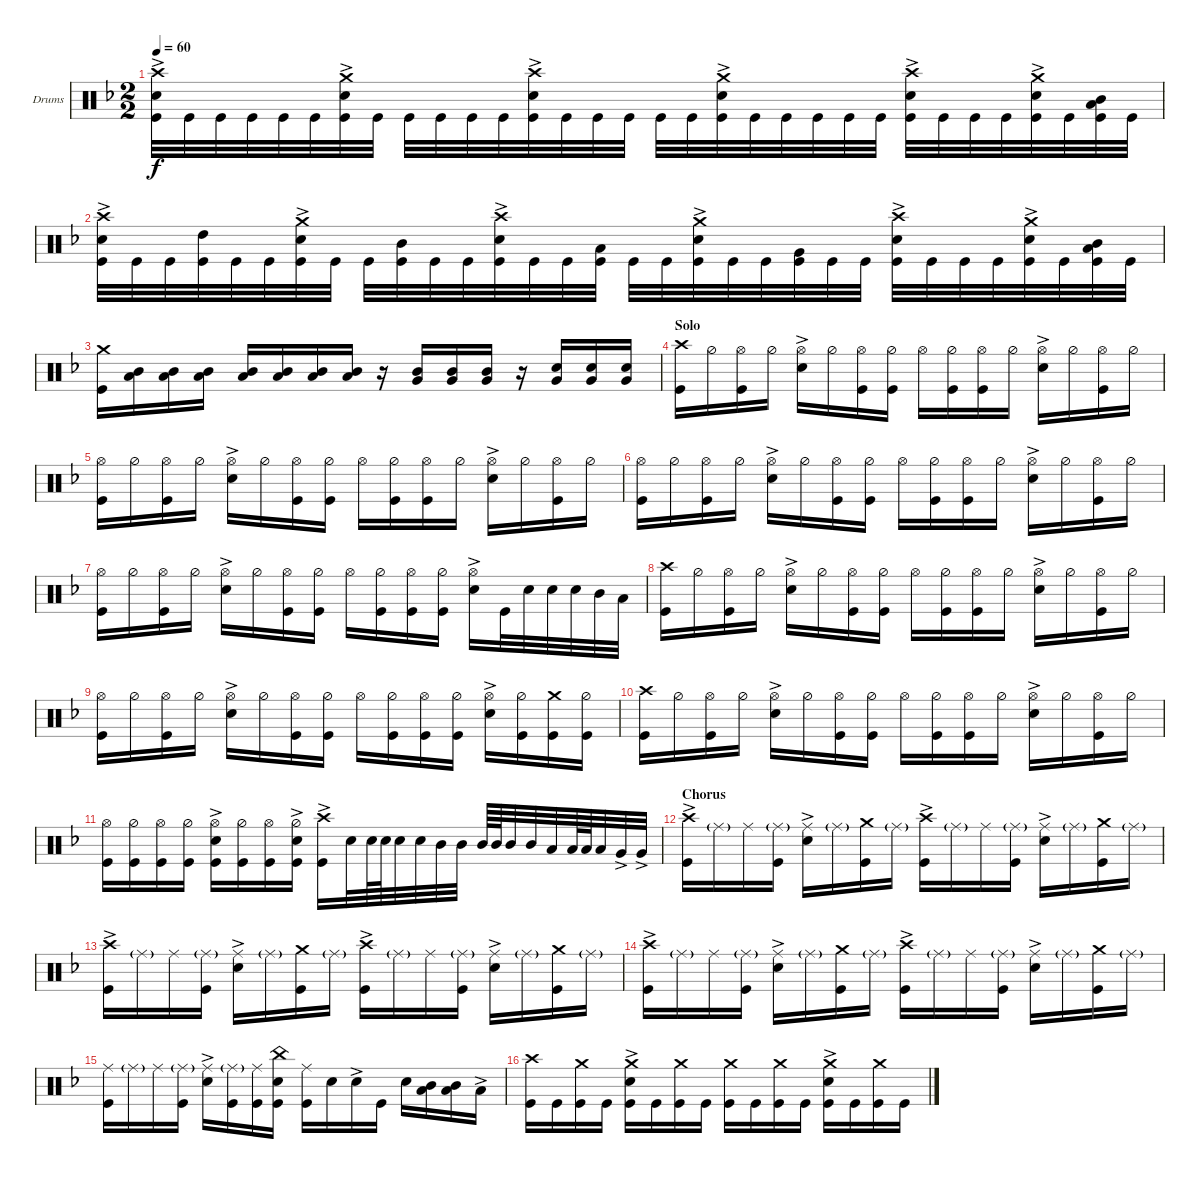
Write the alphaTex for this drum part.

\bracketExtendMode groupsimilarinstruments
\firstSystemTrackNameOrientation horizontal
\otherSystemsTrackNameOrientation horizontal
\track ("Drumkit" "Drums") {instrument percussion}
\staff {score}
\articulation defaults
\ts (2 2)
\tempo 60
\clef neutral
\ks dminor
("Kick (hit)" "Snare (hit) 2"{ac} "Crash high (hit)").32{dy f} "Kick (hit)".32 "Kick (hit)".32 "Kick (hit)".32 "Kick (hit)".32 "Kick (hit)".32 ("Kick (hit)" "Snare (hit) 2"{ac} "Crash medium (hit)").32 "Kick (hit)".32 "Kick (hit)".32 "Kick (hit)".32 "Kick (hit)".32 "Kick (hit)".32 ("Kick (hit)" "Snare (hit) 2"{ac} "Crash high (hit)").32 "Kick (hit)".32 "Kick (hit)".32 "Kick (hit)".32 "Kick (hit)".32 "Kick (hit)".32 ("Kick (hit)" "Snare (hit) 2"{ac} "Crash medium (hit)").32 "Kick (hit)".32 "Kick (hit)".32 "Kick (hit)".32 "Kick (hit)".32 "Kick (hit)".32 ("Kick (hit)" "Snare (hit) 2"{ac} "Crash high (hit)").32 "Kick (hit)".32 "Kick (hit)".32 "Kick (hit)".32 ("Kick (hit)" "Snare (hit) 2"{ac} "Crash medium (hit)").32 "Kick (hit)".32 ("Kick (hit)" "Mid Tom (hit)" "Low Tom (hit)").32 "Kick (hit)".32 |
("Kick (hit)" "Snare (hit) 2"{ac} "Crash high (hit)").32 "Kick (hit)".32 "Kick (hit)".32 ("Kick (hit)" "High Tom (hit)").32 "Kick (hit)".32 "Kick (hit)".32 ("Kick (hit)" "Snare (hit) 2"{ac} "Crash medium (hit)").32 "Kick (hit)".32 "Kick (hit)".32 ("Kick (hit)" "Mid Tom (hit)").32 "Kick (hit)".32 "Kick (hit)".32 ("Kick (hit)" "Snare (hit) 2"{ac} "Crash high (hit)").32 "Kick (hit)".32 "Kick (hit)".32 ("Kick (hit)" "Low Tom (hit)").32 "Kick (hit)".32 "Kick (hit)".32 ("Kick (hit)" "Snare (hit) 2"{ac} "Crash medium (hit)").32 "Kick (hit)".32 "Kick (hit)".32 ("Kick (hit)" "Very Low Tom (hit)").32 "Kick (hit)".32 "Kick (hit)".32 ("Kick (hit)" "Snare (hit) 2"{ac} "Crash high (hit)").32 "Kick (hit)".32 "Kick (hit)".32 "Kick (hit)".32 ("Kick (hit)" "Snare (hit) 2"{ac} "Crash medium (hit)").32 "Kick (hit)".32 ("Kick (hit)" "Mid Tom (hit)" "Low Tom (hit)").32 "Kick (hit)".32 |
("Kick (hit)" "Crash medium (hit)").16 ("Mid Tom (hit)" "Low Tom (hit)").16 ("Mid Tom (hit)" "Low Tom (hit)").16 ("Mid Tom (hit)" "Low Tom (hit)").16 ("Mid Tom (hit)" "Low Tom (hit)").16 ("Mid Tom (hit)" "Low Tom (hit)").16 ("Mid Tom (hit)" "Low Tom (hit)").16 ("Mid Tom (hit)" "Low Tom (hit)").16 r.16 ("Very Low Tom (hit)" "Mid Tom (hit)").16 ("Very Low Tom (hit)" "Mid Tom (hit)").16 ("Very Low Tom (hit)" "Mid Tom (hit)").16 r.16 ("Very Low Tom (hit)" "Snare (hit) 2").16 ("Very Low Tom (hit)" "Snare (hit) 2").16 ("Very Low Tom (hit)" "Snare (hit) 2").16 |
\section ("" "Solo")
("Kick (hit)" "Crash high (hit)").16 "Hi-Hat (half)".16 ("Hi-Hat (open)" "Kick (hit)").16 "Hi-Hat (half)".16 ("Hi-Hat (open)" "Snare (hit) 2"{ac}).16 "Hi-Hat (half)".16 ("Hi-Hat (open)" "Kick (hit)").16 ("Hi-Hat (half)" "Kick (hit)").16 "Hi-Hat (open)".16 ("Hi-Hat (half)" "Kick (hit)").16 ("Hi-Hat (open)" "Kick (hit)").16 "Hi-Hat (half)".16 ("Hi-Hat (open)" "Snare (hit) 2"{ac}).16 "Hi-Hat (half)".16 ("Hi-Hat (open)" "Kick (hit)").16 "Hi-Hat (half)".16 |
("Kick (hit)" "Hi-Hat (open)").16 "Hi-Hat (half)".16 ("Hi-Hat (open)" "Kick (hit)").16 "Hi-Hat (half)".16 ("Hi-Hat (open)" "Snare (hit) 2"{ac}).16 "Hi-Hat (half)".16 ("Hi-Hat (open)" "Kick (hit)").16 ("Hi-Hat (half)" "Kick (hit)").16 "Hi-Hat (open)".16 ("Hi-Hat (half)" "Kick (hit)").16 ("Hi-Hat (open)" "Kick (hit)").16 "Hi-Hat (half)".16 ("Hi-Hat (open)" "Snare (hit) 2"{ac}).16 "Hi-Hat (half)".16 ("Hi-Hat (open)" "Kick (hit)").16 "Hi-Hat (half)".16 |
("Kick (hit)" "Hi-Hat (open)").16 "Hi-Hat (half)".16 ("Hi-Hat (open)" "Kick (hit)").16 "Hi-Hat (half)".16 ("Hi-Hat (open)" "Snare (hit) 2"{ac}).16 "Hi-Hat (half)".16 ("Hi-Hat (open)" "Kick (hit)").16 ("Hi-Hat (half)" "Kick (hit)").16 "Hi-Hat (open)".16 ("Hi-Hat (half)" "Kick (hit)").16 ("Hi-Hat (open)" "Kick (hit)").16 "Hi-Hat (half)".16 ("Hi-Hat (open)" "Snare (hit) 2"{ac}).16 "Hi-Hat (half)".16 ("Hi-Hat (open)" "Kick (hit)").16 "Hi-Hat (half)".16 |
("Kick (hit)" "Hi-Hat (open)").16 "Hi-Hat (half)".16 ("Hi-Hat (open)" "Kick (hit)").16 "Hi-Hat (half)".16 ("Hi-Hat (open)" "Snare (hit) 2"{ac}).16 "Hi-Hat (half)".16 ("Hi-Hat (open)" "Kick (hit)").16 ("Hi-Hat (half)" "Kick (hit)").16 "Hi-Hat (open)".16 ("Hi-Hat (half)" "Kick (hit)").16 ("Hi-Hat (open)" "Kick (hit)").16 ("Hi-Hat (half)" "Kick (hit)").16 ("Hi-Hat (open)" "Snare (hit) 2"{ac}).16 "Kick (hit)".32 "Snare (hit) 2".32 "Snare (hit) 2".32 "Snare (hit) 2".32 "Mid Tom (hit)".32 "Low Tom (hit)".32 |
("Kick (hit)" "Crash high (hit)").16 "Hi-Hat (half)".16 ("Hi-Hat (open)" "Kick (hit)").16 "Hi-Hat (half)".16 ("Hi-Hat (open)" "Snare (hit) 2"{ac}).16 "Hi-Hat (half)".16 ("Hi-Hat (open)" "Kick (hit)").16 ("Hi-Hat (half)" "Kick (hit)").16 "Hi-Hat (open)".16 ("Hi-Hat (half)" "Kick (hit)").16 ("Hi-Hat (open)" "Kick (hit)").16 "Hi-Hat (half)".16 ("Hi-Hat (open)" "Snare (hit) 2"{ac}).16 "Hi-Hat (half)".16 ("Hi-Hat (open)" "Kick (hit)").16 "Hi-Hat (half)".16 |
("Kick (hit)" "Hi-Hat (open)").16 "Hi-Hat (half)".16 ("Hi-Hat (open)" "Kick (hit)").16 "Hi-Hat (half)".16 ("Hi-Hat (open)" "Snare (hit) 2"{ac}).16 "Hi-Hat (half)".16 ("Hi-Hat (open)" "Kick (hit)").16 ("Hi-Hat (half)" "Kick (hit)").16 "Hi-Hat (open)".16 ("Hi-Hat (half)" "Kick (hit)").16 ("Hi-Hat (open)" "Kick (hit)").16 ("Hi-Hat (half)" "Kick (hit)").16 ("Hi-Hat (open)" "Snare (hit) 2"{ac}).16 ("Hi-Hat (half)" "Kick (hit)").16 ("Kick (hit)" "Crash medium (hit)").16 ("Hi-Hat (half)" "Kick (hit)").16 |
("Kick (hit)" "Crash high (hit)").16 "Hi-Hat (half)".16 ("Hi-Hat (open)" "Kick (hit)").16 "Hi-Hat (half)".16 ("Hi-Hat (open)" "Snare (hit) 2"{ac}).16 "Hi-Hat (half)".16 ("Hi-Hat (open)" "Kick (hit)").16 ("Hi-Hat (half)" "Kick (hit)").16 "Hi-Hat (open)".16 ("Hi-Hat (half)" "Kick (hit)").16 ("Hi-Hat (open)" "Kick (hit)").16 "Hi-Hat (half)".16 ("Hi-Hat (open)" "Snare (hit) 2"{ac}).16 "Hi-Hat (half)".16 ("Hi-Hat (open)" "Kick (hit)").16 "Hi-Hat (half)".16 |
("Kick (hit)" "Hi-Hat (open)").16 ("Kick (hit)" "Hi-Hat (half)").16 ("Kick (hit)" "Hi-Hat (open)").16 ("Kick (hit)" "Hi-Hat (half)").16 ("Kick (hit)" "Snare (hit) 2"{ac} "Hi-Hat (open)").16 ("Kick (hit)" "Hi-Hat (half)").16 ("Kick (hit)" "Hi-Hat (open)").16 ("Snare (hit) 2"{ac} "Kick (hit)" "Hi-Hat (half)").16 ("Kick (hit)" "Crash high (hit)"{ac}).16 "Snare (hit) 2".32 "Snare (hit) 2".64 "Snare (hit) 2".64 "Snare (hit) 2".32 "Snare (hit) 2".32 "Mid Tom (hit)".32 "Mid Tom (hit)".32 "Mid Tom (hit)".64 "Mid Tom (hit)".64 "Mid Tom (hit)".32 "Mid Tom (hit)".32 "Low Tom (hit)".32 "Low Tom (hit)".64 "Low Tom (hit)".64 "Low Tom (hit)".32 "Very Low Tom (hit)"{ac}.32 "Very Low Tom (hit)"{ac}.32 |
\section ("" "Chorus")
("Crash high (hit)"{ac} "Kick (hit)").16 "Ride (middle)"{g}.16 "Ride (middle)".16 ("Ride (middle)"{g} "Kick (hit)").16 ("Ride (middle)" "Snare (hit) 2"{ac}).16 "Ride (middle)"{g}.16 ("Crash medium (hit)" "Kick (hit)").16 "Ride (middle)"{g}.16 ("Crash high (hit)"{ac} "Kick (hit)").16 "Ride (middle)"{g}.16 "Ride (middle)".16 ("Ride (middle)"{g} "Kick (hit)").16 ("Ride (middle)" "Snare (hit) 2"{ac}).16 "Ride (middle)"{g}.16 ("Crash medium (hit)" "Kick (hit)").16 "Ride (middle)"{g}.16 |
("Crash high (hit)"{ac} "Kick (hit)").16 "Ride (middle)"{g}.16 "Ride (middle)".16 ("Ride (middle)"{g} "Kick (hit)").16 ("Ride (middle)" "Snare (hit) 2"{ac}).16 "Ride (middle)"{g}.16 ("Crash medium (hit)" "Kick (hit)").16 "Ride (middle)"{g}.16 ("Crash high (hit)"{ac} "Kick (hit)").16 "Ride (middle)"{g}.16 "Ride (middle)".16 ("Ride (middle)"{g} "Kick (hit)").16 ("Ride (middle)" "Snare (hit) 2"{ac}).16 "Ride (middle)"{g}.16 ("Crash medium (hit)" "Kick (hit)").16 "Ride (middle)"{g}.16 |
("Crash high (hit)"{ac} "Kick (hit)").16 "Ride (middle)"{g}.16 "Ride (middle)".16 ("Ride (middle)"{g} "Kick (hit)").16 ("Ride (middle)" "Snare (hit) 2"{ac}).16 "Ride (middle)"{g}.16 ("Crash medium (hit)" "Kick (hit)").16 "Ride (middle)"{g}.16 ("Crash high (hit)"{ac} "Kick (hit)").16 "Ride (middle)"{g}.16 "Ride (middle)".16 ("Ride (middle)"{g} "Kick (hit)").16 ("Ride (middle)" "Snare (hit) 2"{ac}).16 "Ride (middle)"{g}.16 ("Crash medium (hit)" "Kick (hit)").16 "Ride (middle)"{g}.16 |
("Kick (hit)" "Ride (middle)").16 "Ride (middle)"{g}.16 "Ride (middle)".16 ("Kick (hit)" "Ride (middle)"{g}).16 ("Snare (hit) 2"{ac} "Ride (middle)").16 ("Kick (hit)" "Ride (middle)"{g}).16 ("Kick (hit)" "Ride (middle)").16 ("Kick (hit)" "Snare (hit) 2" "China (hit)").16 ("Kick (hit)" "Ride (middle)").16 "Snare (hit) 2".16 "Snare (hit) 2"{ac}.16 "Kick (hit)".16 "Snare (hit) 2".16 ("Mid Tom (hit)" "Low Tom (hit)").16 ("Mid Tom (hit)" "Low Tom (hit)").16 "Low Tom (hit)"{ac}.16 |
("Kick (hit)" "Crash high (hit)").16 "Kick (hit)".16 ("Kick (hit)" "Crash medium (hit)").16 "Kick (hit)".16 ("Kick (hit)" "Snare (hit) 2"{ac} "Crash medium (hit)").16 "Kick (hit)".16 ("Kick (hit)" "Crash medium (hit)").16 "Kick (hit)".16 ("Kick (hit)" "Crash medium (hit)").16 "Kick (hit)".16 ("Kick (hit)" "Crash medium (hit)").16 "Kick (hit)".16 ("Kick (hit)" "Snare (hit) 2"{ac} "Crash medium (hit)").16 "Kick (hit)".16 ("Kick (hit)" "Crash medium (hit)").16 "Kick (hit)".16
